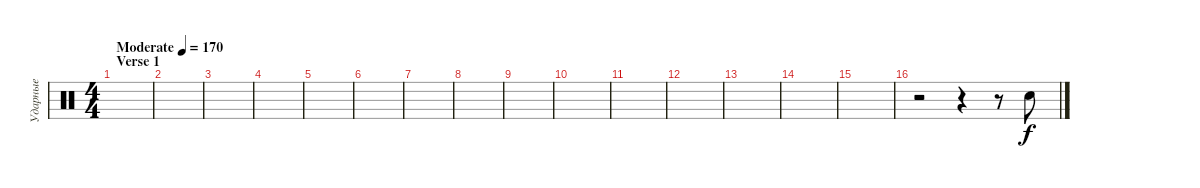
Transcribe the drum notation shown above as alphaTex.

\track ("Ударные" "Ударные") {instrument percussion}
\staff {score}
\articulation defaults
\ts (4 4)
\section ("" "Verse 1")
\tempo (170 "Moderate")
\clef neutral
\ks c
|
|
|
|
|
|
|
|
|
|
|
|
|
|
|
r.2 r.4 r.8 "Electric Snare (hit)".8
